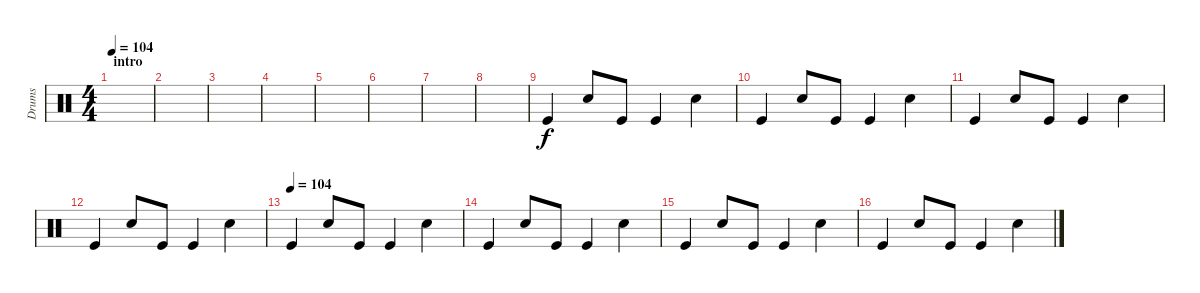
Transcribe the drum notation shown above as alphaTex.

\track ("Drums" "Drums") {instrument percussion}
\staff {score}
\articulation defaults
\ts (4 4)
\section ("" "intro")
\tempo 104
\clef neutral
\ks c
|
|
|
|
|
|
|
|
"Kick (hit)".4 "Snare (hit) 2".8 "Kick (hit)".8 "Kick (hit)".4 "Snare (hit) 2".4 |
"Kick (hit)".4 "Snare (hit) 2".8 "Kick (hit)".8 "Kick (hit)".4 "Snare (hit) 2".4 |
"Kick (hit)".4 "Snare (hit) 2".8 "Kick (hit)".8 "Kick (hit)".4 "Snare (hit) 2".4 |
"Kick (hit)".4 "Snare (hit) 2".8 "Kick (hit)".8 "Kick (hit)".4 "Snare (hit) 2".4 |
\tempo (104)
"Kick (hit)".4 "Snare (hit) 2".8 "Kick (hit)".8 "Kick (hit)".4 "Snare (hit) 2".4 |
"Kick (hit)".4 "Snare (hit) 2".8 "Kick (hit)".8 "Kick (hit)".4 "Snare (hit) 2".4 |
"Kick (hit)".4 "Snare (hit) 2".8 "Kick (hit)".8 "Kick (hit)".4 "Snare (hit) 2".4 |
"Kick (hit)".4 "Snare (hit) 2".8 "Kick (hit)".8 "Kick (hit)".4 "Snare (hit) 2".4
